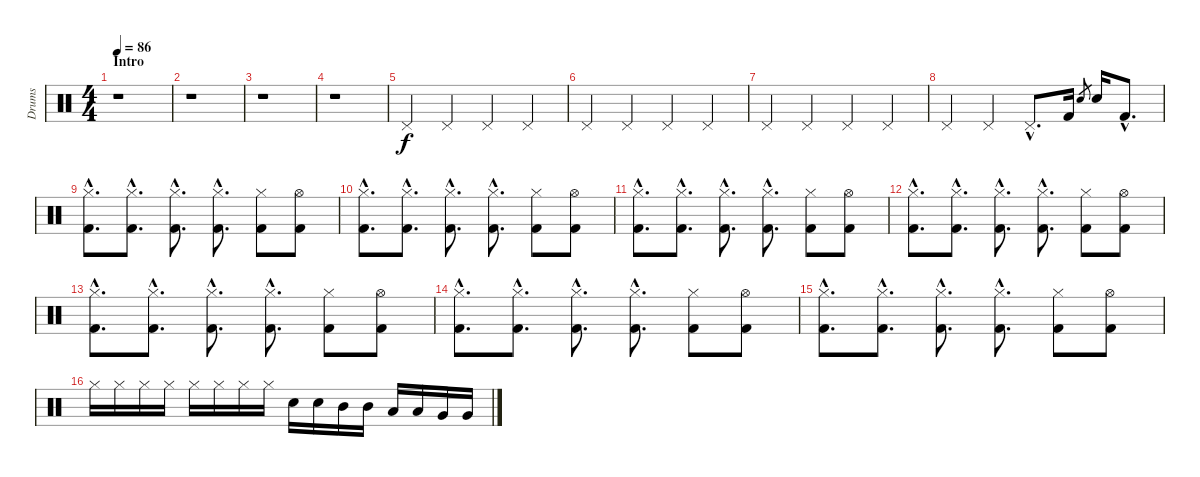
\track ("Drums" "Drums") {instrument percussion}
\staff {score}
\articulation defaults
\ts (4 4)
\section ("" "Intro")
\tempo 86
\clef neutral
\ks c
r.1{dy f} |
r.1 |
r.1 |
r.1 |
"Pedal Hi-Hat (hit)".4 "Pedal Hi-Hat (hit)".4 "Pedal Hi-Hat (hit)".4 "Pedal Hi-Hat (hit)".4 |
"Pedal Hi-Hat (hit)".4 "Pedal Hi-Hat (hit)".4 "Pedal Hi-Hat (hit)".4 "Pedal Hi-Hat (hit)".4 |
"Pedal Hi-Hat (hit)".4 "Pedal Hi-Hat (hit)".4 "Pedal Hi-Hat (hit)".4 "Pedal Hi-Hat (hit)".4 |
"Pedal Hi-Hat (hit)".4 "Pedal Hi-Hat (hit)".4 "Pedal Hi-Hat (hit)"{hac}.8{d} "Kick (hit) 2".16 "Electric Snare (hit)".8{gr} "Electric Snare (hit)".16 "Kick (hit) 2"{hac}.8{d} |
("Hi-Hat (closed)"{hac} "Kick (hit) 2"{hac}).8{d} ("Hi-Hat (closed)"{hac} "Kick (hit) 2"{hac}).8{d} ("Hi-Hat (closed)"{hac} "Kick (hit) 2"{hac}).8{d} ("Hi-Hat (closed)"{hac} "Kick (hit) 2"{hac}).8{d} ("Hi-Hat (closed)" "Kick (hit) 2").8 ("Hi-Hat (open)" "Kick (hit) 2").8 |
("Hi-Hat (closed)"{hac} "Kick (hit) 2"{hac}).8{d} ("Hi-Hat (closed)"{hac} "Kick (hit) 2"{hac}).8{d} ("Hi-Hat (closed)"{hac} "Kick (hit) 2"{hac}).8{d} ("Hi-Hat (closed)"{hac} "Kick (hit) 2"{hac}).8{d} ("Hi-Hat (closed)" "Kick (hit) 2").8 ("Hi-Hat (open)" "Kick (hit) 2").8 |
("Hi-Hat (closed)"{hac} "Kick (hit) 2"{hac}).8{d} ("Hi-Hat (closed)"{hac} "Kick (hit) 2"{hac}).8{d} ("Hi-Hat (closed)"{hac} "Kick (hit) 2"{hac}).8{d} ("Hi-Hat (closed)"{hac} "Kick (hit) 2"{hac}).8{d} ("Hi-Hat (closed)" "Kick (hit) 2").8 ("Hi-Hat (open)" "Kick (hit) 2").8 |
("Hi-Hat (closed)"{hac} "Kick (hit) 2"{hac}).8{d} ("Hi-Hat (closed)"{hac} "Kick (hit) 2"{hac}).8{d} ("Hi-Hat (closed)"{hac} "Kick (hit) 2"{hac}).8{d} ("Hi-Hat (closed)"{hac} "Kick (hit) 2"{hac}).8{d} ("Hi-Hat (closed)" "Kick (hit) 2").8 ("Hi-Hat (open)" "Kick (hit) 2").8 |
("Hi-Hat (closed)"{hac} "Kick (hit) 2"{hac}).8{d} ("Hi-Hat (closed)"{hac} "Kick (hit) 2"{hac}).8{d} ("Hi-Hat (closed)"{hac} "Kick (hit) 2"{hac}).8{d} ("Hi-Hat (closed)"{hac} "Kick (hit) 2"{hac}).8{d} ("Hi-Hat (closed)" "Kick (hit) 2").8 ("Hi-Hat (open)" "Kick (hit) 2").8 |
("Hi-Hat (closed)"{hac} "Kick (hit) 2"{hac}).8{d} ("Hi-Hat (closed)"{hac} "Kick (hit) 2"{hac}).8{d} ("Hi-Hat (closed)"{hac} "Kick (hit) 2"{hac}).8{d} ("Hi-Hat (closed)"{hac} "Kick (hit) 2"{hac}).8{d} ("Hi-Hat (closed)" "Kick (hit) 2").8 ("Hi-Hat (open)" "Kick (hit) 2").8 |
("Hi-Hat (closed)"{hac} "Kick (hit) 2"{hac}).8{d} ("Hi-Hat (closed)"{hac} "Kick (hit) 2"{hac}).8{d} ("Hi-Hat (closed)"{hac} "Kick (hit) 2"{hac}).8{d} ("Hi-Hat (closed)"{hac} "Kick (hit) 2"{hac}).8{d} ("Hi-Hat (closed)" "Kick (hit) 2").8 ("Hi-Hat (open)" "Kick (hit) 2").8 |
"Hi-Hat (closed)".16 "Hi-Hat (closed)".16 "Hi-Hat (closed)".16 "Hi-Hat (closed)".16 "Hi-Hat (closed)".16 "Hi-Hat (closed)".16 "Hi-Hat (closed)".16 "Hi-Hat (closed)".16 "Electric Snare (hit)".16 "Electric Snare (hit)".16 "Mid Tom (hit)".16 "Mid Tom (hit)".16 "Low Tom (hit)".16 "Low Tom (hit)".16 "Very Low Tom (hit)".16 "Very Low Tom (hit)".16
